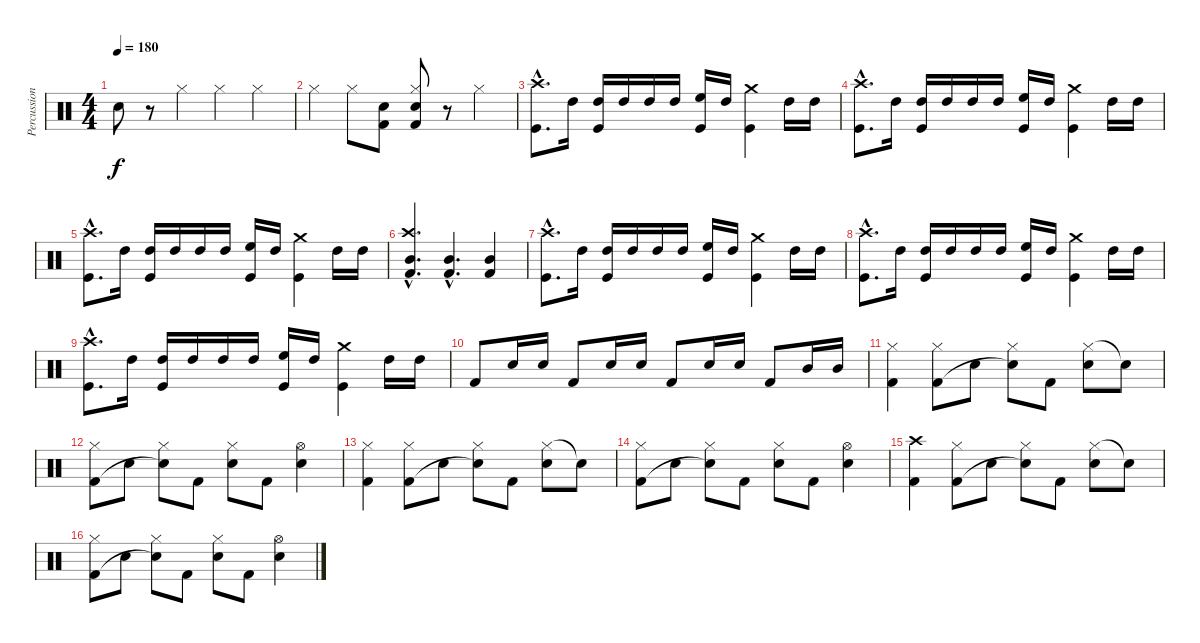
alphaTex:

\track ("Percussion" "Percussion") {instrument percussion}
\staff {score}
\articulation defaults
\ts (4 4)
\tempo 180
\clef neutral
\ks c "Snare (hit) 2".8{dy f}
r.8 "Hi-Hat (closed)".4 "Hi-Hat (closed)".4 "Hi-Hat (closed)".4 |
"Hi-Hat (closed)".4 "Hi-Hat (closed)".8 ("Snare (hit) 2" "Kick (hit) 2").8 ("Hi-Hat (closed)" "Snare (hit) 2" "Kick (hit) 2").8 r.8 "Hi-Hat (closed)".4 |
("Crash high (hit)"{hac} "Kick (hit)"{hac}).8{d} "High Tom (hit)".16 ("High Tom (hit)" "Kick (hit)").16 "High Tom (hit)".16 "High Tom (hit)".16 "High Tom (hit)".16 ("High Floor Tom (hit)" "Kick (hit)").16 "High Tom (hit)".16 ("Crash medium (hit)" "Kick (hit)").4 "High Tom (hit)".16 "High Tom (hit)".16 |
("Crash high (hit)"{hac} "Kick (hit)"{hac}).8{d} "High Tom (hit)".16 ("High Tom (hit)" "Kick (hit)").16 "High Tom (hit)".16 "High Tom (hit)".16 "High Tom (hit)".16 ("High Floor Tom (hit)" "Kick (hit)").16 "High Tom (hit)".16 ("Crash medium (hit)" "Kick (hit)").4 "High Tom (hit)".16 "High Tom (hit)".16 |
("Crash high (hit)"{hac} "Kick (hit)"{hac}).8{d} "High Tom (hit)".16 ("High Tom (hit)" "Kick (hit)").16 "High Tom (hit)".16 "High Tom (hit)".16 "High Tom (hit)".16 ("High Floor Tom (hit)" "Kick (hit)").16 "High Tom (hit)".16 ("Crash medium (hit)" "Kick (hit)").4 "High Tom (hit)".16 "High Tom (hit)".16 |
("Crash high (hit)"{hac} "Mid Tom (hit)"{hac} "Kick (hit) 2"{hac}).4{d} ("Mid Tom (hit)"{hac} "Kick (hit) 2"{hac}).4{d} ("Mid Tom (hit)" "Kick (hit) 2").4 |
("Crash high (hit)"{hac} "Kick (hit)"{hac}).8{d} "High Tom (hit)".16 ("High Tom (hit)" "Kick (hit)").16 "High Tom (hit)".16 "High Tom (hit)".16 "High Tom (hit)".16 ("High Floor Tom (hit)" "Kick (hit)").16 "High Tom (hit)".16 ("Crash medium (hit)" "Kick (hit)").4 "High Tom (hit)".16 "High Tom (hit)".16 |
("Crash high (hit)"{hac} "Kick (hit)"{hac}).8{d} "High Tom (hit)".16 ("High Tom (hit)" "Kick (hit)").16 "High Tom (hit)".16 "High Tom (hit)".16 "High Tom (hit)".16 ("High Floor Tom (hit)" "Kick (hit)").16 "High Tom (hit)".16 ("Crash medium (hit)" "Kick (hit)").4 "High Tom (hit)".16 "High Tom (hit)".16 |
("Crash high (hit)"{hac} "Kick (hit)"{hac}).8{d} "High Tom (hit)".16 ("High Tom (hit)" "Kick (hit)").16 "High Tom (hit)".16 "High Tom (hit)".16 "High Tom (hit)".16 ("High Floor Tom (hit)" "Kick (hit)").16 "High Tom (hit)".16 ("Crash medium (hit)" "Kick (hit)").4 "High Tom (hit)".16 "High Tom (hit)".16 |
"Kick (hit) 2".8 "Snare (hit) 2".16 "Snare (hit) 2".16 "Kick (hit) 2".8 "Snare (hit) 2".16 "Snare (hit) 2".16 "Kick (hit) 2".8 "Snare (hit) 2".16 "Snare (hit) 2".16 "Kick (hit) 2".8 "Mid Tom (hit)".16 "Mid Tom (hit)".16 |
("Hi-Hat (closed)" "Kick (hit) 2").4 ("Hi-Hat (closed)" "Kick (hit) 2").8 "Snare (hit) 2".8 ("Hi-Hat (closed)" "Snare (hit)"{t}).8 "Kick (hit) 2".8 ("Hi-Hat (closed)" "Snare (hit) 2").8 "Snare (hit)"{t}.8 |
("Hi-Hat (closed)" "Kick (hit) 2").8 "Snare (hit) 2".8 ("Hi-Hat (closed)" "Snare (hit)"{t}).8 "Kick (hit) 2".8 ("Hi-Hat (closed)" "Snare (hit) 2").8 "Kick (hit) 2".8 ("Hi-Hat (open)" "Snare (hit) 2").4 |
("Hi-Hat (closed)" "Kick (hit) 2").4 ("Hi-Hat (closed)" "Kick (hit) 2").8 "Snare (hit) 2".8 ("Hi-Hat (closed)" "Snare (hit)"{t}).8 "Kick (hit) 2".8 ("Hi-Hat (closed)" "Snare (hit) 2").8 "Snare (hit)"{t}.8 |
("Hi-Hat (closed)" "Kick (hit) 2").8 "Snare (hit) 2".8 ("Hi-Hat (closed)" "Snare (hit)"{t}).8 "Kick (hit) 2".8 ("Hi-Hat (closed)" "Snare (hit) 2").8 "Kick (hit) 2".8 ("Hi-Hat (open)" "Snare (hit) 2").4 |
("Crash high (hit)" "Kick (hit) 2").4 ("Hi-Hat (closed)" "Kick (hit) 2").8 "Snare (hit) 2".8 ("Hi-Hat (closed)" "Snare (hit)"{t}).8 "Kick (hit) 2".8 ("Hi-Hat (closed)" "Snare (hit) 2").8 "Snare (hit)"{t}.8 |
("Hi-Hat (closed)" "Kick (hit) 2").8 "Snare (hit) 2".8 ("Hi-Hat (closed)" "Snare (hit)"{t}).8 "Kick (hit) 2".8 ("Hi-Hat (closed)" "Snare (hit) 2").8 "Kick (hit) 2".8 ("Hi-Hat (open)" "Snare (hit) 2").4
